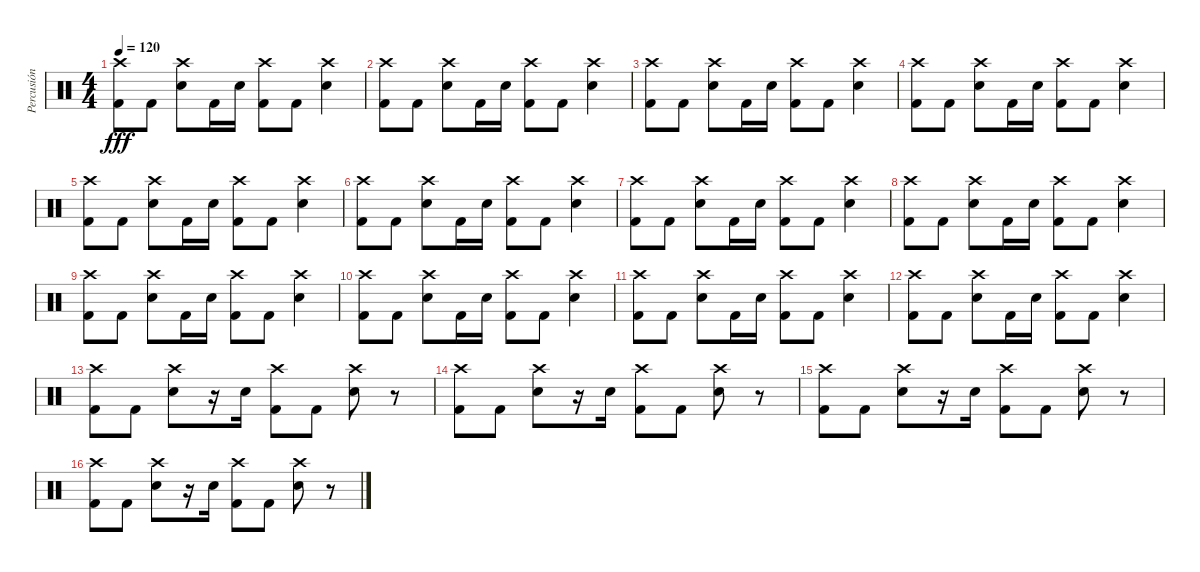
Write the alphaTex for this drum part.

\track ("Percusión" "Percusión") {instrument percussion}
\staff {score}
\articulation defaults
\ts (4 4)
\tempo 120
\clef neutral
\ks c
("Crash high (hit)" "Kick (hit) 2").8{dy fff} "Kick (hit) 2".8 ("Crash high (hit)" "Snare (hit) 2").8 "Kick (hit) 2".16 "Snare (hit) 2".16 ("Crash high (hit)" "Kick (hit) 2").8 "Kick (hit) 2".8 ("Crash high (hit)" "Snare (hit) 2").4 |
("Crash high (hit)" "Kick (hit) 2").8 "Kick (hit) 2".8 ("Crash high (hit)" "Snare (hit) 2").8 "Kick (hit) 2".16 "Snare (hit) 2".16 ("Crash high (hit)" "Kick (hit) 2").8 "Kick (hit) 2".8 ("Crash high (hit)" "Snare (hit) 2").4 |
("Crash high (hit)" "Kick (hit) 2").8 "Kick (hit) 2".8 ("Crash high (hit)" "Snare (hit) 2").8 "Kick (hit) 2".16 "Snare (hit) 2".16 ("Crash high (hit)" "Kick (hit) 2").8 "Kick (hit) 2".8 ("Crash high (hit)" "Snare (hit) 2").4 |
("Crash high (hit)" "Kick (hit) 2").8 "Kick (hit) 2".8 ("Crash high (hit)" "Snare (hit) 2").8 "Kick (hit) 2".16 "Snare (hit) 2".16 ("Crash high (hit)" "Kick (hit) 2").8 "Kick (hit) 2".8 ("Crash high (hit)" "Snare (hit) 2").4 |
("Crash high (hit)" "Kick (hit) 2").8 "Kick (hit) 2".8 ("Crash high (hit)" "Snare (hit) 2").8 "Kick (hit) 2".16 "Snare (hit) 2".16 ("Crash high (hit)" "Kick (hit) 2").8 "Kick (hit) 2".8 ("Crash high (hit)" "Snare (hit) 2").4 |
("Crash high (hit)" "Kick (hit) 2").8 "Kick (hit) 2".8 ("Crash high (hit)" "Snare (hit) 2").8 "Kick (hit) 2".16 "Snare (hit) 2".16 ("Crash high (hit)" "Kick (hit) 2").8 "Kick (hit) 2".8 ("Crash high (hit)" "Snare (hit) 2").4 |
("Crash high (hit)" "Kick (hit) 2").8 "Kick (hit) 2".8 ("Crash high (hit)" "Snare (hit) 2").8 "Kick (hit) 2".16 "Snare (hit) 2".16 ("Crash high (hit)" "Kick (hit) 2").8 "Kick (hit) 2".8 ("Crash high (hit)" "Snare (hit) 2").4 |
("Crash high (hit)" "Kick (hit) 2").8 "Kick (hit) 2".8 ("Crash high (hit)" "Snare (hit) 2").8 "Kick (hit) 2".16 "Snare (hit) 2".16 ("Crash high (hit)" "Kick (hit) 2").8 "Kick (hit) 2".8 ("Crash high (hit)" "Snare (hit) 2").4 |
("Crash high (hit)" "Kick (hit) 2").8 "Kick (hit) 2".8 ("Crash high (hit)" "Snare (hit) 2").8 "Kick (hit) 2".16 "Snare (hit) 2".16 ("Crash high (hit)" "Kick (hit) 2").8 "Kick (hit) 2".8 ("Crash high (hit)" "Snare (hit) 2").4 |
("Crash high (hit)" "Kick (hit) 2").8 "Kick (hit) 2".8 ("Crash high (hit)" "Snare (hit) 2").8 "Kick (hit) 2".16 "Snare (hit) 2".16 ("Crash high (hit)" "Kick (hit) 2").8 "Kick (hit) 2".8 ("Crash high (hit)" "Snare (hit) 2").4 |
("Crash high (hit)" "Kick (hit) 2").8 "Kick (hit) 2".8 ("Crash high (hit)" "Snare (hit) 2").8 "Kick (hit) 2".16 "Snare (hit) 2".16 ("Crash high (hit)" "Kick (hit) 2").8 "Kick (hit) 2".8 ("Crash high (hit)" "Snare (hit) 2").4 |
("Crash high (hit)" "Kick (hit) 2").8 "Kick (hit) 2".8 ("Crash high (hit)" "Snare (hit) 2").8 "Kick (hit) 2".16 "Snare (hit) 2".16 ("Crash high (hit)" "Kick (hit) 2").8 "Kick (hit) 2".8 ("Crash high (hit)" "Snare (hit) 2").4 |
("Crash high (hit)" "Kick (hit) 2").8 "Kick (hit) 2".8 ("Crash high (hit)" "Snare (hit) 2").8 r.16 "Snare (hit) 2".16 ("Crash high (hit)" "Kick (hit) 2").8 "Kick (hit) 2".8 ("Crash high (hit)" "Snare (hit) 2").8 r.8 |
("Crash high (hit)" "Kick (hit) 2").8 "Kick (hit) 2".8 ("Crash high (hit)" "Snare (hit) 2").8 r.16 "Snare (hit) 2".16 ("Crash high (hit)" "Kick (hit) 2").8 "Kick (hit) 2".8 ("Crash high (hit)" "Snare (hit) 2").8 r.8 |
("Crash high (hit)" "Kick (hit) 2").8 "Kick (hit) 2".8 ("Crash high (hit)" "Snare (hit) 2").8 r.16 "Snare (hit) 2".16 ("Crash high (hit)" "Kick (hit) 2").8 "Kick (hit) 2".8 ("Crash high (hit)" "Snare (hit) 2").8 r.8 |
("Crash high (hit)" "Kick (hit) 2").8 "Kick (hit) 2".8 ("Crash high (hit)" "Snare (hit) 2").8 r.16 "Snare (hit) 2".16 ("Crash high (hit)" "Kick (hit) 2").8 "Kick (hit) 2".8 ("Crash high (hit)" "Snare (hit) 2").8 r.8
